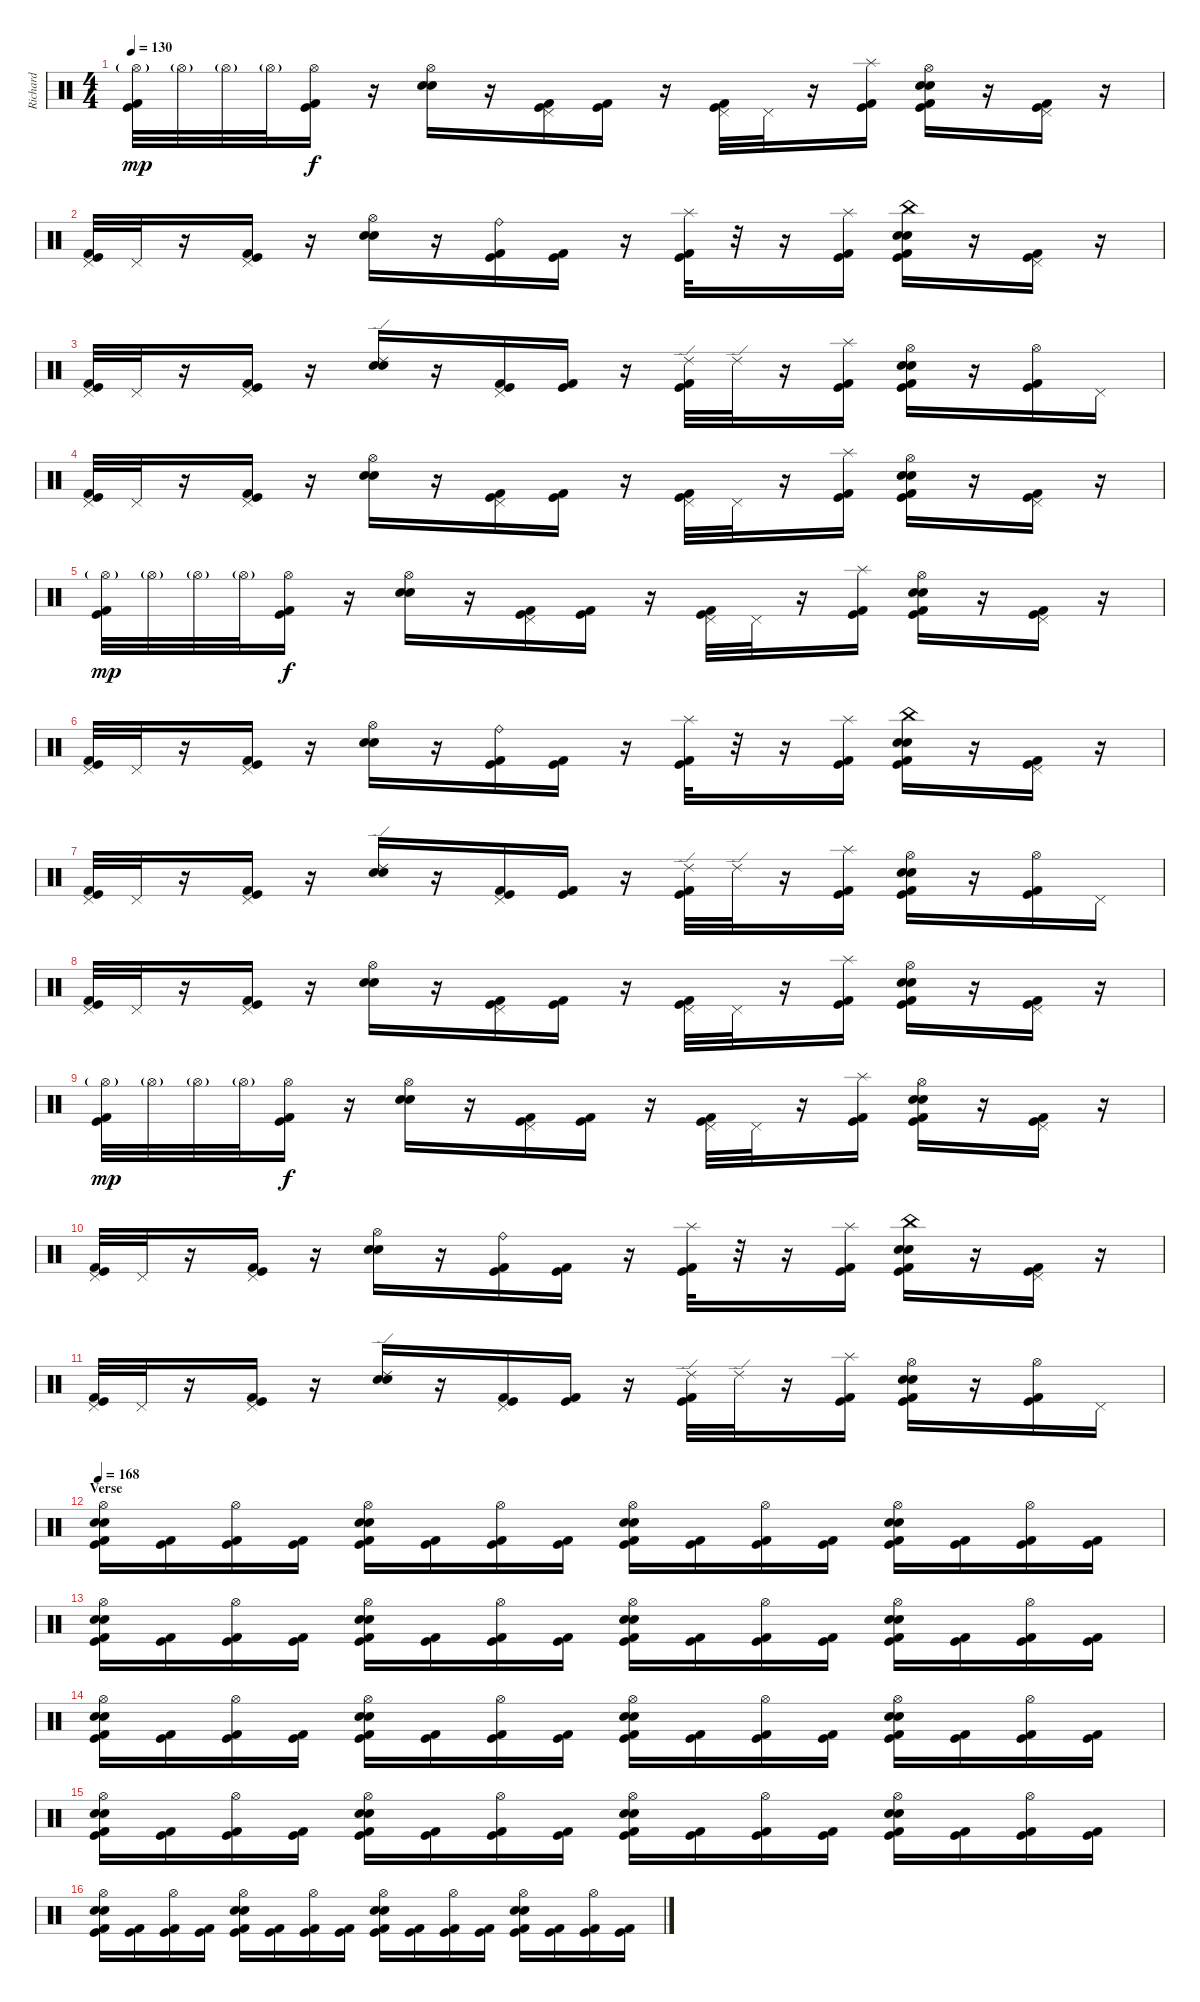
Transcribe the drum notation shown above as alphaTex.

\track ("Richard" "Richard") {instrument percussion}
\staff {score}
\articulation defaults
\ts (4 4)
\tempo 130
\clef neutral
\ks c
("Hi-Hat (open)"{g} "Kick (hit)" "Kick (hit) 2").32{dy mp} "Hi-Hat (open)"{g}.32 "Hi-Hat (open)"{g}.32 "Hi-Hat (open)"{g}.32 ("Hi-Hat (open)" "Kick (hit)" "Kick (hit) 2").16{dy f} r.16 ("Hi-Hat (open)" "Snare (hit) 2" "Electric Snare (hit)").16 r.16 ("Pedal Hi-Hat (hit)" "Kick (hit)" "Kick (hit) 2").16 ("Kick (hit)" "Kick (hit) 2").16 r.16 ("Pedal Hi-Hat (hit)" "Kick (hit)" "Kick (hit) 2").32 "Pedal Hi-Hat (hit)".32 r.16 ("Splash (hit)" "Kick (hit)" "Kick (hit) 2").16 ("Hi-Hat (open)" "Snare (hit) 2" "Electric Snare (hit)" "Kick (hit)" "Kick (hit) 2").16 r.16 ("Pedal Hi-Hat (hit)" "Kick (hit)" "Kick (hit) 2").16 r.16 |
("Pedal Hi-Hat (hit)" "Kick (hit)" "Kick (hit) 2").32 "Pedal Hi-Hat (hit)".32 r.16 ("Pedal Hi-Hat (hit)" "Kick (hit)" "Kick (hit) 2").16 r.16 ("Hi-Hat (open)" "Snare (hit) 2" "Electric Snare (hit)").16 r.16 ("Ride (bell)" "Kick (hit)" "Kick (hit) 2").16 ("Kick (hit)" "Kick (hit) 2").16 r.16 ("Splash (hit)" "Kick (hit)" "Kick (hit) 2").32 r.32 r.16 ("Splash (hit)" "Kick (hit)" "Kick (hit) 2").16 ("China (hit)" "Snare (hit) 2" "Electric Snare (hit)" "Kick (hit)" "Kick (hit) 2").16 r.16 ("Pedal Hi-Hat (hit)" "Kick (hit)" "Kick (hit) 2").16 r.16 |
("Pedal Hi-Hat (hit)" "Kick (hit)" "Kick (hit) 2").32 "Pedal Hi-Hat (hit)".32 r.16 ("Pedal Hi-Hat (hit)" "Kick (hit)" "Kick (hit) 2").16 r.16 ("Ride (edge) 2" "Snare (hit) 2" "Electric Snare (hit)").16 r.16 ("Pedal Hi-Hat (hit)" "Kick (hit)" "Kick (hit) 2").16 ("Kick (hit)" "Kick (hit) 2").16 r.16 ("Ride (edge) 2" "Kick (hit)" "Kick (hit) 2").32 "Ride (edge) 2".32 r.16 ("Splash (hit)" "Kick (hit)" "Kick (hit) 2").16 ("Hi-Hat (open)" "Snare (hit) 2" "Electric Snare (hit)" "Kick (hit)" "Kick (hit) 2").16 r.16 ("Hi-Hat (open)" "Kick (hit)" "Kick (hit) 2").16 "Pedal Hi-Hat (hit)".16 |
("Pedal Hi-Hat (hit)" "Kick (hit)" "Kick (hit) 2").32 "Pedal Hi-Hat (hit)".32 r.16 ("Pedal Hi-Hat (hit)" "Kick (hit)" "Kick (hit) 2").16 r.16 ("Hi-Hat (open)" "Snare (hit) 2" "Electric Snare (hit)").16 r.16 ("Pedal Hi-Hat (hit)" "Kick (hit)" "Kick (hit) 2").16 ("Kick (hit)" "Kick (hit) 2").16 r.16 ("Pedal Hi-Hat (hit)" "Kick (hit)" "Kick (hit) 2").32 "Pedal Hi-Hat (hit)".32 r.16 ("Splash (hit)" "Kick (hit)" "Kick (hit) 2").16 ("Hi-Hat (open)" "Snare (hit) 2" "Electric Snare (hit)" "Kick (hit)" "Kick (hit) 2").16 r.16 ("Pedal Hi-Hat (hit)" "Kick (hit)" "Kick (hit) 2").16 r.16 |
("Hi-Hat (open)"{g} "Kick (hit)" "Kick (hit) 2").32{dy mp} "Hi-Hat (open)"{g}.32 "Hi-Hat (open)"{g}.32 "Hi-Hat (open)"{g}.32 ("Hi-Hat (open)" "Kick (hit)" "Kick (hit) 2").16{dy f} r.16 ("Hi-Hat (open)" "Snare (hit) 2" "Electric Snare (hit)").16 r.16 ("Pedal Hi-Hat (hit)" "Kick (hit)" "Kick (hit) 2").16 ("Kick (hit)" "Kick (hit) 2").16 r.16 ("Pedal Hi-Hat (hit)" "Kick (hit)" "Kick (hit) 2").32 "Pedal Hi-Hat (hit)".32 r.16 ("Splash (hit)" "Kick (hit)" "Kick (hit) 2").16 ("Hi-Hat (open)" "Snare (hit) 2" "Electric Snare (hit)" "Kick (hit)" "Kick (hit) 2").16 r.16 ("Pedal Hi-Hat (hit)" "Kick (hit)" "Kick (hit) 2").16 r.16 |
("Pedal Hi-Hat (hit)" "Kick (hit)" "Kick (hit) 2").32 "Pedal Hi-Hat (hit)".32 r.16 ("Pedal Hi-Hat (hit)" "Kick (hit)" "Kick (hit) 2").16 r.16 ("Hi-Hat (open)" "Snare (hit) 2" "Electric Snare (hit)").16 r.16 ("Ride (bell)" "Kick (hit)" "Kick (hit) 2").16 ("Kick (hit)" "Kick (hit) 2").16 r.16 ("Splash (hit)" "Kick (hit)" "Kick (hit) 2").32 r.32 r.16 ("Splash (hit)" "Kick (hit)" "Kick (hit) 2").16 ("China (hit)" "Snare (hit) 2" "Electric Snare (hit)" "Kick (hit)" "Kick (hit) 2").16 r.16 ("Pedal Hi-Hat (hit)" "Kick (hit)" "Kick (hit) 2").16 r.16 |
("Pedal Hi-Hat (hit)" "Kick (hit)" "Kick (hit) 2").32 "Pedal Hi-Hat (hit)".32 r.16 ("Pedal Hi-Hat (hit)" "Kick (hit)" "Kick (hit) 2").16 r.16 ("Ride (edge) 2" "Snare (hit) 2" "Electric Snare (hit)").16 r.16 ("Pedal Hi-Hat (hit)" "Kick (hit)" "Kick (hit) 2").16 ("Kick (hit)" "Kick (hit) 2").16 r.16 ("Ride (edge) 2" "Kick (hit)" "Kick (hit) 2").32 "Ride (edge) 2".32 r.16 ("Splash (hit)" "Kick (hit)" "Kick (hit) 2").16 ("Hi-Hat (open)" "Snare (hit) 2" "Electric Snare (hit)" "Kick (hit)" "Kick (hit) 2").16 r.16 ("Hi-Hat (open)" "Kick (hit)" "Kick (hit) 2").16 "Pedal Hi-Hat (hit)".16 |
("Pedal Hi-Hat (hit)" "Kick (hit)" "Kick (hit) 2").32 "Pedal Hi-Hat (hit)".32 r.16 ("Pedal Hi-Hat (hit)" "Kick (hit)" "Kick (hit) 2").16 r.16 ("Hi-Hat (open)" "Snare (hit) 2" "Electric Snare (hit)").16 r.16 ("Pedal Hi-Hat (hit)" "Kick (hit)" "Kick (hit) 2").16 ("Kick (hit)" "Kick (hit) 2").16 r.16 ("Pedal Hi-Hat (hit)" "Kick (hit)" "Kick (hit) 2").32 "Pedal Hi-Hat (hit)".32 r.16 ("Splash (hit)" "Kick (hit)" "Kick (hit) 2").16 ("Hi-Hat (open)" "Snare (hit) 2" "Electric Snare (hit)" "Kick (hit)" "Kick (hit) 2").16 r.16 ("Pedal Hi-Hat (hit)" "Kick (hit)" "Kick (hit) 2").16 r.16 |
("Hi-Hat (open)"{g} "Kick (hit)" "Kick (hit) 2").32{dy mp} "Hi-Hat (open)"{g}.32 "Hi-Hat (open)"{g}.32 "Hi-Hat (open)"{g}.32 ("Hi-Hat (open)" "Kick (hit)" "Kick (hit) 2").16{dy f} r.16 ("Hi-Hat (open)" "Snare (hit) 2" "Electric Snare (hit)").16 r.16 ("Pedal Hi-Hat (hit)" "Kick (hit)" "Kick (hit) 2").16 ("Kick (hit)" "Kick (hit) 2").16 r.16 ("Pedal Hi-Hat (hit)" "Kick (hit)" "Kick (hit) 2").32 "Pedal Hi-Hat (hit)".32 r.16 ("Splash (hit)" "Kick (hit)" "Kick (hit) 2").16 ("Hi-Hat (open)" "Snare (hit) 2" "Electric Snare (hit)" "Kick (hit)" "Kick (hit) 2").16 r.16 ("Pedal Hi-Hat (hit)" "Kick (hit)" "Kick (hit) 2").16 r.16 |
("Pedal Hi-Hat (hit)" "Kick (hit)" "Kick (hit) 2").32 "Pedal Hi-Hat (hit)".32 r.16 ("Pedal Hi-Hat (hit)" "Kick (hit)" "Kick (hit) 2").16 r.16 ("Hi-Hat (open)" "Snare (hit) 2" "Electric Snare (hit)").16 r.16 ("Ride (bell)" "Kick (hit)" "Kick (hit) 2").16 ("Kick (hit)" "Kick (hit) 2").16 r.16 ("Splash (hit)" "Kick (hit)" "Kick (hit) 2").32 r.32 r.16 ("Splash (hit)" "Kick (hit)" "Kick (hit) 2").16 ("China (hit)" "Snare (hit) 2" "Electric Snare (hit)" "Kick (hit)" "Kick (hit) 2").16 r.16 ("Pedal Hi-Hat (hit)" "Kick (hit)" "Kick (hit) 2").16 r.16 |
("Pedal Hi-Hat (hit)" "Kick (hit)" "Kick (hit) 2").32 "Pedal Hi-Hat (hit)".32 r.16 ("Pedal Hi-Hat (hit)" "Kick (hit)" "Kick (hit) 2").16 r.16 ("Ride (edge) 2" "Snare (hit) 2" "Electric Snare (hit)").16 r.16 ("Pedal Hi-Hat (hit)" "Kick (hit)" "Kick (hit) 2").16 ("Kick (hit)" "Kick (hit) 2").16 r.16 ("Ride (edge) 2" "Kick (hit)" "Kick (hit) 2").32 "Ride (edge) 2".32 r.16 ("Splash (hit)" "Kick (hit)" "Kick (hit) 2").16 ("Hi-Hat (open)" "Snare (hit) 2" "Electric Snare (hit)" "Kick (hit)" "Kick (hit) 2").16 r.16 ("Hi-Hat (open)" "Kick (hit)" "Kick (hit) 2").16 "Pedal Hi-Hat (hit)".16 |
\section ("" "Verse")
\tempo 168
("Hi-Hat (open)" "Snare (hit) 2" "Electric Snare (hit)" "Kick (hit)" "Kick (hit) 2").16 ("Kick (hit)" "Kick (hit) 2").16 ("Hi-Hat (open)" "Kick (hit)" "Kick (hit) 2").16 ("Kick (hit)" "Kick (hit) 2").16 ("Hi-Hat (open)" "Snare (hit) 2" "Electric Snare (hit)" "Kick (hit)" "Kick (hit) 2").16 ("Kick (hit)" "Kick (hit) 2").16 ("Hi-Hat (open)" "Kick (hit)" "Kick (hit) 2").16 ("Kick (hit)" "Kick (hit) 2").16 ("Hi-Hat (open)" "Snare (hit) 2" "Electric Snare (hit)" "Kick (hit)" "Kick (hit) 2").16 ("Kick (hit)" "Kick (hit) 2").16 ("Hi-Hat (open)" "Kick (hit)" "Kick (hit) 2").16 ("Kick (hit)" "Kick (hit) 2").16 ("Hi-Hat (open)" "Snare (hit) 2" "Electric Snare (hit)" "Kick (hit)" "Kick (hit) 2").16 ("Kick (hit)" "Kick (hit) 2").16 ("Hi-Hat (open)" "Kick (hit)" "Kick (hit) 2").16 ("Kick (hit)" "Kick (hit) 2").16 |
("Hi-Hat (open)" "Snare (hit) 2" "Electric Snare (hit)" "Kick (hit)" "Kick (hit) 2").16 ("Kick (hit)" "Kick (hit) 2").16 ("Hi-Hat (open)" "Kick (hit)" "Kick (hit) 2").16 ("Kick (hit)" "Kick (hit) 2").16 ("Hi-Hat (open)" "Snare (hit) 2" "Electric Snare (hit)" "Kick (hit)" "Kick (hit) 2").16 ("Kick (hit)" "Kick (hit) 2").16 ("Hi-Hat (open)" "Kick (hit)" "Kick (hit) 2").16 ("Kick (hit)" "Kick (hit) 2").16 ("Hi-Hat (open)" "Snare (hit) 2" "Electric Snare (hit)" "Kick (hit)" "Kick (hit) 2").16 ("Kick (hit)" "Kick (hit) 2").16 ("Hi-Hat (open)" "Kick (hit)" "Kick (hit) 2").16 ("Kick (hit)" "Kick (hit) 2").16 ("Hi-Hat (open)" "Snare (hit) 2" "Electric Snare (hit)" "Kick (hit)" "Kick (hit) 2").16 ("Kick (hit)" "Kick (hit) 2").16 ("Hi-Hat (open)" "Kick (hit)" "Kick (hit) 2").16 ("Kick (hit)" "Kick (hit) 2").16 |
("Hi-Hat (open)" "Snare (hit) 2" "Electric Snare (hit)" "Kick (hit)" "Kick (hit) 2").16 ("Kick (hit)" "Kick (hit) 2").16 ("Hi-Hat (open)" "Kick (hit)" "Kick (hit) 2").16 ("Kick (hit)" "Kick (hit) 2").16 ("Hi-Hat (open)" "Snare (hit) 2" "Electric Snare (hit)" "Kick (hit)" "Kick (hit) 2").16 ("Kick (hit)" "Kick (hit) 2").16 ("Hi-Hat (open)" "Kick (hit)" "Kick (hit) 2").16 ("Kick (hit)" "Kick (hit) 2").16 ("Hi-Hat (open)" "Snare (hit) 2" "Electric Snare (hit)" "Kick (hit)" "Kick (hit) 2").16 ("Kick (hit)" "Kick (hit) 2").16 ("Hi-Hat (open)" "Kick (hit)" "Kick (hit) 2").16 ("Kick (hit)" "Kick (hit) 2").16 ("Hi-Hat (open)" "Snare (hit) 2" "Electric Snare (hit)" "Kick (hit)" "Kick (hit) 2").16 ("Kick (hit)" "Kick (hit) 2").16 ("Hi-Hat (open)" "Kick (hit)" "Kick (hit) 2").16 ("Kick (hit)" "Kick (hit) 2").16 |
("Hi-Hat (open)" "Snare (hit) 2" "Electric Snare (hit)" "Kick (hit)" "Kick (hit) 2").16 ("Kick (hit)" "Kick (hit) 2").16 ("Hi-Hat (open)" "Kick (hit)" "Kick (hit) 2").16 ("Kick (hit)" "Kick (hit) 2").16 ("Hi-Hat (open)" "Snare (hit) 2" "Electric Snare (hit)" "Kick (hit)" "Kick (hit) 2").16 ("Kick (hit)" "Kick (hit) 2").16 ("Hi-Hat (open)" "Kick (hit)" "Kick (hit) 2").16 ("Kick (hit)" "Kick (hit) 2").16 ("Hi-Hat (open)" "Snare (hit) 2" "Electric Snare (hit)" "Kick (hit)" "Kick (hit) 2").16 ("Kick (hit)" "Kick (hit) 2").16 ("Hi-Hat (open)" "Kick (hit)" "Kick (hit) 2").16 ("Kick (hit)" "Kick (hit) 2").16 ("Hi-Hat (open)" "Snare (hit) 2" "Electric Snare (hit)" "Kick (hit)" "Kick (hit) 2").16 ("Kick (hit)" "Kick (hit) 2").16 ("Hi-Hat (open)" "Kick (hit)" "Kick (hit) 2").16 ("Kick (hit)" "Kick (hit) 2").16 |
("Hi-Hat (open)" "Snare (hit) 2" "Electric Snare (hit)" "Kick (hit)" "Kick (hit) 2").16 ("Kick (hit)" "Kick (hit) 2").16 ("Hi-Hat (open)" "Kick (hit)" "Kick (hit) 2").16 ("Kick (hit)" "Kick (hit) 2").16 ("Hi-Hat (open)" "Snare (hit) 2" "Electric Snare (hit)" "Kick (hit)" "Kick (hit) 2").16 ("Kick (hit)" "Kick (hit) 2").16 ("Hi-Hat (open)" "Kick (hit)" "Kick (hit) 2").16 ("Kick (hit)" "Kick (hit) 2").16 ("Hi-Hat (open)" "Snare (hit) 2" "Electric Snare (hit)" "Kick (hit)" "Kick (hit) 2").16 ("Kick (hit)" "Kick (hit) 2").16 ("Hi-Hat (open)" "Kick (hit)" "Kick (hit) 2").16 ("Kick (hit)" "Kick (hit) 2").16 ("Hi-Hat (open)" "Snare (hit) 2" "Electric Snare (hit)" "Kick (hit)" "Kick (hit) 2").16 ("Kick (hit)" "Kick (hit) 2").16 ("Hi-Hat (open)" "Kick (hit)" "Kick (hit) 2").16 ("Kick (hit)" "Kick (hit) 2").16
